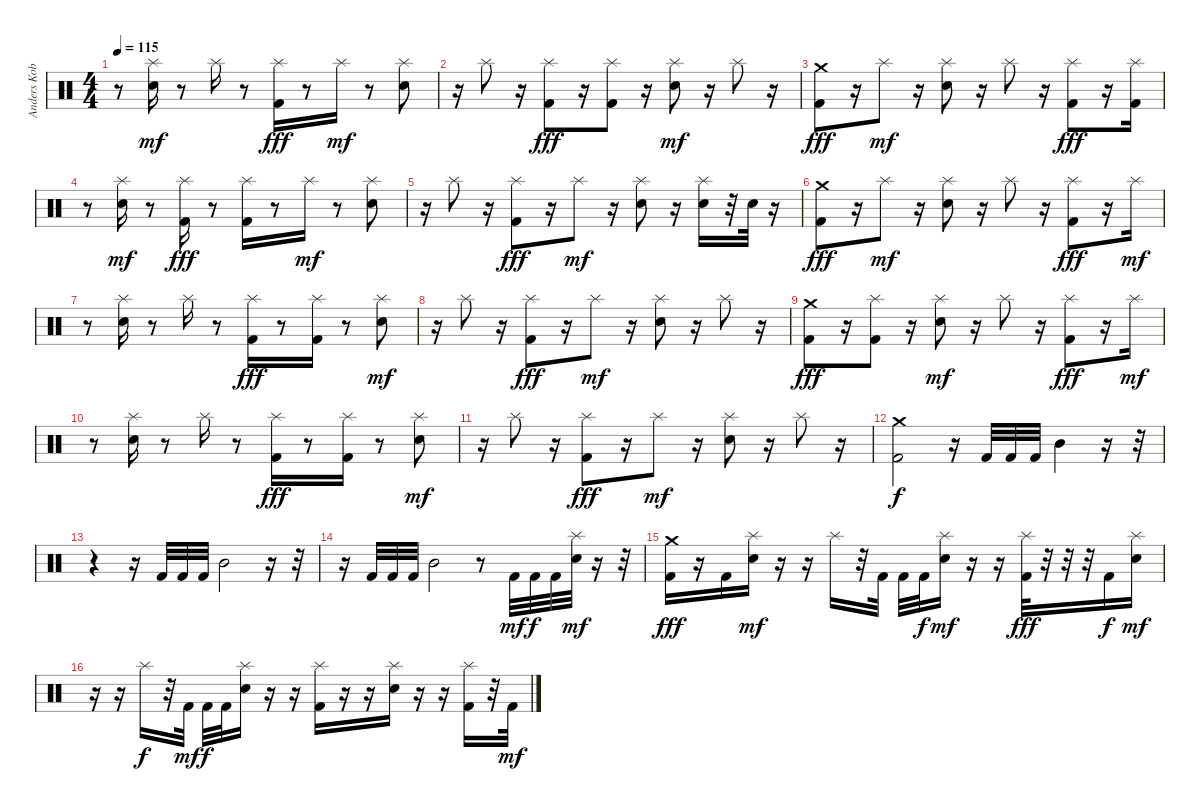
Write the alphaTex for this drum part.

\track ("Anders Kobro " "Anders Kob") {instrument percussion}
\staff {score}
\articulation defaults
\ts (4 4)
\tempo 115
\clef neutral
\ks c
r.8{dy mf} ("Splash (hit)" "Snare (hit) 2").16 r.8 "Splash (hit)".16 r.8 ("Splash (hit)" "Kick (hit) 2").16{dy fff} r.8 "Splash (hit)".16{dy mf} r.8 ("Splash (hit)" "Snare (hit) 2").8 |
r.16 "Splash (hit)".8 r.16 ("Splash (hit)" "Kick (hit) 2").8{dy fff} r.16 ("Splash (hit)" "Kick (hit) 2").8 r.16 ("Splash (hit)" "Snare (hit) 2").8{dy mf} r.16 "Splash (hit)".8 r.16 |
("Crash medium (hit)" "Kick (hit) 2").8{dy fff} r.16 "Splash (hit)".8{dy mf} r.16 ("Splash (hit)" "Snare (hit) 2").8 r.16 "Splash (hit)".8 r.16 ("Splash (hit)" "Kick (hit) 2").8{dy fff} r.16 ("Splash (hit)" "Kick (hit) 2").16 |
r.8 ("Splash (hit)" "Snare (hit) 2").16{dy mf} r.8 ("Splash (hit)" "Kick (hit) 2").16{dy fff} r.8 ("Splash (hit)" "Kick (hit) 2").16 r.8 "Splash (hit)".16{dy mf} r.8 ("Splash (hit)" "Snare (hit) 2").8 |
r.16 "Splash (hit)".8 r.16 ("Splash (hit)" "Kick (hit) 2").8{dy fff} r.16 "Splash (hit)".8{dy mf} r.16 ("Splash (hit)" "Snare (hit) 2").8 r.16 ("Splash (hit)" "Snare (hit) 2").16 r.32 "Snare (hit) 2".32 r.16 |
("Crash medium (hit)" "Kick (hit) 2").8{dy fff} r.16 "Splash (hit)".8{dy mf} r.16 ("Splash (hit)" "Snare (hit) 2").8 r.16 "Splash (hit)".8 r.16 ("Splash (hit)" "Kick (hit) 2").8{dy fff} r.16 "Splash (hit)".16{dy mf} |
r.8 ("Splash (hit)" "Snare (hit) 2").16 r.8 "Splash (hit)".16 r.8 ("Splash (hit)" "Kick (hit) 2").16{dy fff} r.8 ("Splash (hit)" "Kick (hit) 2").16 r.8 ("Splash (hit)" "Snare (hit) 2").8{dy mf} |
r.16 "Splash (hit)".8 r.16 ("Splash (hit)" "Kick (hit) 2").8{dy fff} r.16 "Splash (hit)".8{dy mf} r.16 ("Splash (hit)" "Snare (hit) 2").8 r.16 "Splash (hit)".8 r.16 |
("Crash medium (hit)" "Kick (hit) 2").8{dy fff} r.16 ("Splash (hit)" "Kick (hit) 2").8 r.16 ("Splash (hit)" "Snare (hit) 2").8{dy mf} r.16 "Splash (hit)".8 r.16 ("Splash (hit)" "Kick (hit) 2").8{dy fff} r.16 "Splash (hit)".16{dy mf} |
r.8 ("Splash (hit)" "Snare (hit) 2").16 r.8 "Splash (hit)".16 r.8 ("Splash (hit)" "Kick (hit) 2").16{dy fff} r.8 ("Splash (hit)" "Kick (hit) 2").16 r.8 ("Splash (hit)" "Snare (hit) 2").8{dy mf} |
r.16 "Splash (hit)".8 r.16 ("Splash (hit)" "Kick (hit) 2").8{dy fff} r.16 "Splash (hit)".8{dy mf} r.16 ("Splash (hit)" "Snare (hit) 2").8 r.16 "Splash (hit)".8 r.16 |
("Crash medium (hit)" "Kick (hit) 2").2{dy f} r.16 "Kick (hit) 2".32 "Kick (hit) 2".32 "Kick (hit) 2".32 "Mid Tom (hit)".4 r.16 r.32 |
r.4 r.16 "Kick (hit) 2".32 "Kick (hit) 2".32 "Kick (hit) 2".32 "Mid Tom (hit)".2 r.16 r.32 |
r.16 "Kick (hit) 2".32 "Kick (hit) 2".32 "Kick (hit) 2".32 "Mid Tom (hit)".2 r.8 "Kick (hit) 2".32{dy mf} "Kick (hit) 2".32{dy f} "Kick (hit) 2".32 ("Splash (hit)" "Snare (hit) 2").32{dy mf} r.16 r.32 |
("Crash medium (hit)" "Kick (hit) 2").16{dy fff} r.16 "Kick (hit) 2".16 ("Splash (hit)" "Snare (hit) 2").16{dy mf} r.16 r.16 "Splash (hit)".16 r.32 "Kick (hit) 2".32 "Kick (hit) 2".32 "Kick (hit) 2".32{dy f} ("Splash (hit)" "Snare (hit) 2").16{dy mf} r.16 r.16 ("Splash (hit)" "Kick (hit) 2").32{dy fff} r.32 r.32 r.32 "Kick (hit) 2".16{dy f} ("Splash (hit)" "Snare (hit) 2").16{dy mf} |
r.16 r.16 "Splash (hit)".16{dy f} r.32 "Kick (hit) 2".32{dy mf} "Kick (hit) 2".32{dy f} "Kick (hit) 2".32 ("Splash (hit)" "Snare (hit) 2").16 r.16 r.16 ("Splash (hit)" "Kick (hit) 2").16 r.16 r.16 ("Splash (hit)" "Snare (hit) 2").16 r.16 r.16 ("Splash (hit)" "Kick (hit) 2").16 r.32 "Kick (hit) 2".32{dy mf}
